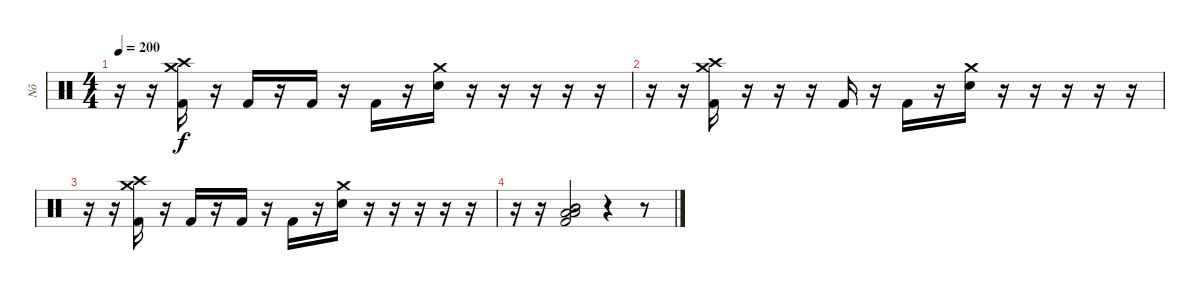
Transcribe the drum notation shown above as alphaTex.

\track ("Nô" "Nô") {instrument percussion}
\staff {score}
\articulation defaults
\ts (4 4)
\tempo 200
\clef neutral
\ks c
r.16{dy f} r.16 ("Crash medium (hit)" "Crash high (hit)" "Kick (hit) 2").16 r.16 "Kick (hit) 2".16 r.16 "Kick (hit) 2".16 r.16 "Kick (hit) 2".16 r.16 ("Crash medium (hit)" "Electric Snare (hit)").16 r.16 r.16 r.16 r.16 r.16 |
r.16 r.16 ("Crash medium (hit)" "Crash high (hit)" "Kick (hit) 2").16 r.16 r.16 r.16 "Kick (hit) 2".16 r.16 "Kick (hit) 2".16 r.16 ("Crash medium (hit)" "Electric Snare (hit)").16 r.16 r.16 r.16 r.16 r.16 |
r.16 r.16 ("Crash medium (hit)" "Crash high (hit)" "Kick (hit) 2").16 r.16 "Kick (hit) 2".16 r.16 "Kick (hit) 2".16 r.16 "Kick (hit) 2".16 r.16 ("Crash medium (hit)" "Electric Snare (hit)").16 r.16 r.16 r.16 r.16 r.16 |
r.16 r.16 ("Mid Tom (hit)" "Mid Tom (hit)" "Mid Tom (hit)" "Low Tom (hit)" "Low Tom (hit)" "Kick (hit) 2").2 r.4 r.8
